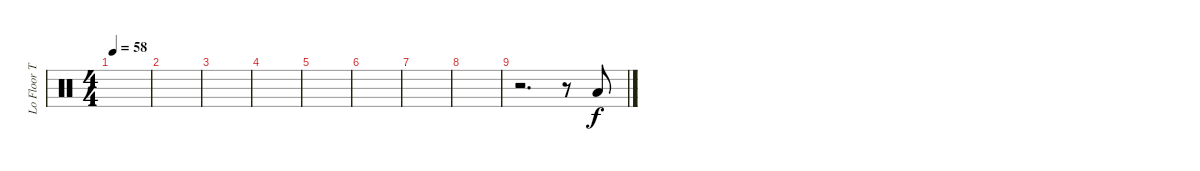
\track ("Lo Floor Tom" "Lo Floor T") {instrument percussion}
\staff {score}
\articulation defaults
\ts (4 4)
\tempo 58
\clef neutral
\ks c
|
|
|
|
|
|
|
|
r.2{d} r.8 "Low Floor Tom (hit)".8
